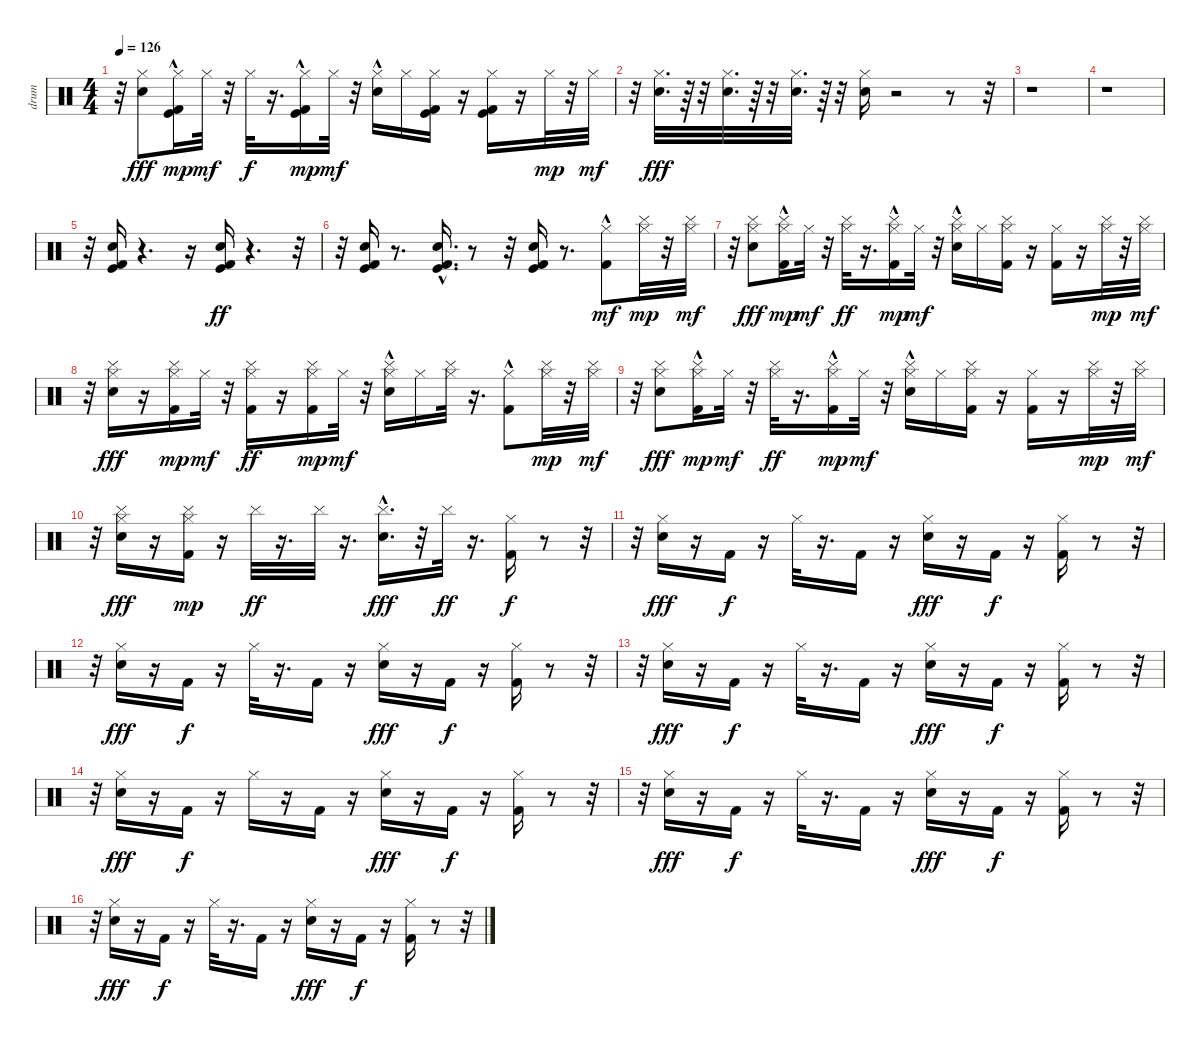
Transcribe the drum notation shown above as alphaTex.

\track ("drum" "drum") {instrument percussion}
\staff {score}
\articulation defaults
\ts (4 4)
\tempo 126
\clef neutral
\ks c
r.32{dy mf} ("Electric Snare (hit)" "Hi-Hat (closed)").8{dy fff} ("Kick (hit)" "Kick (hit) 2"{hac} "Hi-Hat (closed)").16{dy mp} "Hi-Hat (closed)".32{dy mf} r.32 "Hi-Hat (closed)".32{dy f} r.16{d} ("Kick (hit)" "Kick (hit) 2"{hac} "Hi-Hat (closed)").16{dy mp} "Hi-Hat (closed)".32{dy mf} r.32 ("Electric Snare (hit)"{hac} "Hi-Hat (closed)").16 "Hi-Hat (closed)".16 ("Kick (hit) 2" "Kick (hit)" "Hi-Hat (closed)").16 r.16 ("Kick (hit)" "Kick (hit) 2" "Hi-Hat (closed)").16 r.16 "Hi-Hat (closed)".32{dy mp} r.32 "Hi-Hat (closed)".32{dy mf} |
r.32 ("Electric Snare (hit)" "Hi-Hat (closed)").32{d dy fff} r.64 r.32 ("Electric Snare (hit)" "Hi-Hat (closed)").32{d} r.64 r.32 ("Electric Snare (hit)" "Hi-Hat (closed)").32{d} r.64 r.32 ("Electric Snare (hit)" "Hi-Hat (closed)").16 r.2 r.8 r.32 |
r.1 |
r.1 |
r.32 ("Kick (hit)" "Kick (hit) 2" "Electric Snare (hit)").16 r.4{d} r.16 ("Kick (hit)" "Kick (hit) 2" "Electric Snare (hit)").16{dy ff} r.4{d} r.32 |
r.32 ("Kick (hit)" "Kick (hit) 2" "Electric Snare (hit)").16 r.8{d} ("Kick (hit)" "Kick (hit) 2" "Electric Snare (hit)"{hac}).16{d} r.8 r.32 ("Kick (hit)" "Kick (hit) 2" "Electric Snare (hit)").16 r.8{d} ("Kick (hit) 2"{hac} "Hi-Hat (closed)").8{dy mf} ("Cymbal (hit)" "Hi-Hat (closed)").32{dy mp} r.32 ("Cymbal (hit)" "Hi-Hat (closed)").32{dy mf} |
r.32 ("Cymbal (hit)" "Electric Snare (hit)" "Hi-Hat (closed)").8{dy fff} ("Cymbal (hit)" "Kick (hit) 2"{hac} "Hi-Hat (closed)").16{dy mp} "Hi-Hat (closed)".32{dy mf} r.32 ("Cymbal (hit)" "Hi-Hat (closed)").32{dy ff} r.16{d} ("Cymbal (hit)" "Kick (hit) 2"{hac} "Hi-Hat (closed)").16{dy mp} "Hi-Hat (closed)".32{dy mf} r.32 ("Cymbal (hit)" "Electric Snare (hit)"{hac} "Hi-Hat (closed)").16 "Hi-Hat (closed)".16 ("Cymbal (hit)" "Kick (hit) 2" "Hi-Hat (closed)").16 r.16 ("Kick (hit) 2" "Hi-Hat (closed)").16 r.16 ("Cymbal (hit)" "Hi-Hat (closed)").32{dy mp} r.32 ("Cymbal (hit)" "Hi-Hat (closed)").32{dy mf} |
r.32 ("Cymbal (hit)" "Electric Snare (hit)" "Hi-Hat (closed)").16{dy fff} r.16 ("Cymbal (hit)" "Kick (hit) 2" "Hi-Hat (closed)").16{dy mp} "Hi-Hat (closed)".32{dy mf} r.32 ("Cymbal (hit)" "Kick (hit) 2" "Hi-Hat (closed)").16{dy ff} r.16 ("Cymbal (hit)" "Kick (hit) 2" "Hi-Hat (closed)").16{dy mp} "Hi-Hat (closed)".32{dy mf} r.32 ("Cymbal (hit)" "Electric Snare (hit)"{hac} "Hi-Hat (closed)").16 "Hi-Hat (closed)".16 ("Cymbal (hit)" "Hi-Hat (closed)").32 r.16{d} ("Kick (hit) 2"{hac} "Hi-Hat (closed)").8 ("Cymbal (hit)" "Hi-Hat (closed)").32{dy mp} r.32 ("Cymbal (hit)" "Hi-Hat (closed)").32{dy mf} |
r.32 ("Cymbal (hit)" "Electric Snare (hit)" "Hi-Hat (closed)").8{dy fff} ("Cymbal (hit)" "Kick (hit) 2"{hac} "Hi-Hat (closed)").16{dy mp} "Hi-Hat (closed)".32{dy mf} r.32 ("Cymbal (hit)" "Hi-Hat (closed)").32{dy ff} r.16{d} ("Cymbal (hit)" "Kick (hit) 2"{hac} "Hi-Hat (closed)").16{dy mp} "Hi-Hat (closed)".32{dy mf} r.32 ("Cymbal (hit)" "Electric Snare (hit)"{hac} "Hi-Hat (closed)").16 "Hi-Hat (closed)".16 ("Cymbal (hit)" "Kick (hit) 2" "Hi-Hat (closed)").16 r.16 ("Kick (hit) 2" "Hi-Hat (closed)").16 r.16 ("Cymbal (hit)" "Hi-Hat (closed)").32{dy mp} r.32 ("Cymbal (hit)" "Hi-Hat (closed)").32{dy mf} |
r.32 ("Cymbal (hit)" "Electric Snare (hit)" "Hi-Hat (closed)").16{dy fff} r.16 ("Cymbal (hit)" "Kick (hit) 2" "Hi-Hat (closed)").16{dy mp} r.16 "Cymbal (hit)".32{dy ff} r.16{d} "Cymbal (hit)".32 r.16{d} ("Cymbal (hit)" "Electric Snare (hit)"{hac}).16{d dy fff} r.32 "Cymbal (hit)".32{dy ff} r.16{d} ("Kick (hit) 2" "Hi-Hat (closed)").16{dy f} r.8 r.32 |
r.32 ("Electric Snare (hit)" "Hi-Hat (closed)").16{dy fff} r.16 "Kick (hit) 2".16{dy f} r.16 "Hi-Hat (closed)".32 r.16{d} "Kick (hit) 2".16 r.16 ("Electric Snare (hit)" "Hi-Hat (closed)").16{dy fff} r.16 "Kick (hit) 2".16{dy f} r.16 ("Kick (hit) 2" "Hi-Hat (closed)").16 r.8 r.32 |
r.32 ("Electric Snare (hit)" "Hi-Hat (closed)").16{dy fff} r.16 "Kick (hit) 2".16{dy f} r.16 "Hi-Hat (closed)".32 r.16{d} "Kick (hit) 2".16 r.16 ("Electric Snare (hit)" "Hi-Hat (closed)").16{dy fff} r.16 "Kick (hit) 2".16{dy f} r.16 ("Kick (hit) 2" "Hi-Hat (closed)").16 r.8 r.32 |
r.32 ("Electric Snare (hit)" "Hi-Hat (closed)").16{dy fff} r.16 "Kick (hit) 2".16{dy f} r.16 "Hi-Hat (closed)".32 r.16{d} "Kick (hit) 2".16 r.16 ("Electric Snare (hit)" "Hi-Hat (closed)").16{dy fff} r.16 "Kick (hit) 2".16{dy f} r.16 ("Kick (hit) 2" "Hi-Hat (closed)").16 r.8 r.32 |
r.32 ("Electric Snare (hit)" "Hi-Hat (closed)").16{dy fff} r.16 "Kick (hit) 2".16{dy f} r.16 "Hi-Hat (closed)".16 r.16 "Kick (hit) 2".16 r.16 ("Electric Snare (hit)" "Hi-Hat (closed)").16{dy fff} r.16 "Kick (hit) 2".16{dy f} r.16 ("Kick (hit) 2" "Hi-Hat (closed)").16 r.8 r.32 |
r.32 ("Electric Snare (hit)" "Hi-Hat (closed)").16{dy fff} r.16 "Kick (hit) 2".16{dy f} r.16 "Hi-Hat (closed)".32 r.16{d} "Kick (hit) 2".16 r.16 ("Electric Snare (hit)" "Hi-Hat (closed)").16{dy fff} r.16 "Kick (hit) 2".16{dy f} r.16 ("Kick (hit) 2" "Hi-Hat (closed)").16 r.8 r.32 |
r.32 ("Electric Snare (hit)" "Hi-Hat (closed)").16{dy fff} r.16 "Kick (hit) 2".16{dy f} r.16 "Hi-Hat (closed)".32 r.16{d} "Kick (hit) 2".16 r.16 ("Electric Snare (hit)" "Hi-Hat (closed)").16{dy fff} r.16 "Kick (hit) 2".16{dy f} r.16 ("Kick (hit) 2" "Hi-Hat (closed)").16 r.8 r.32
